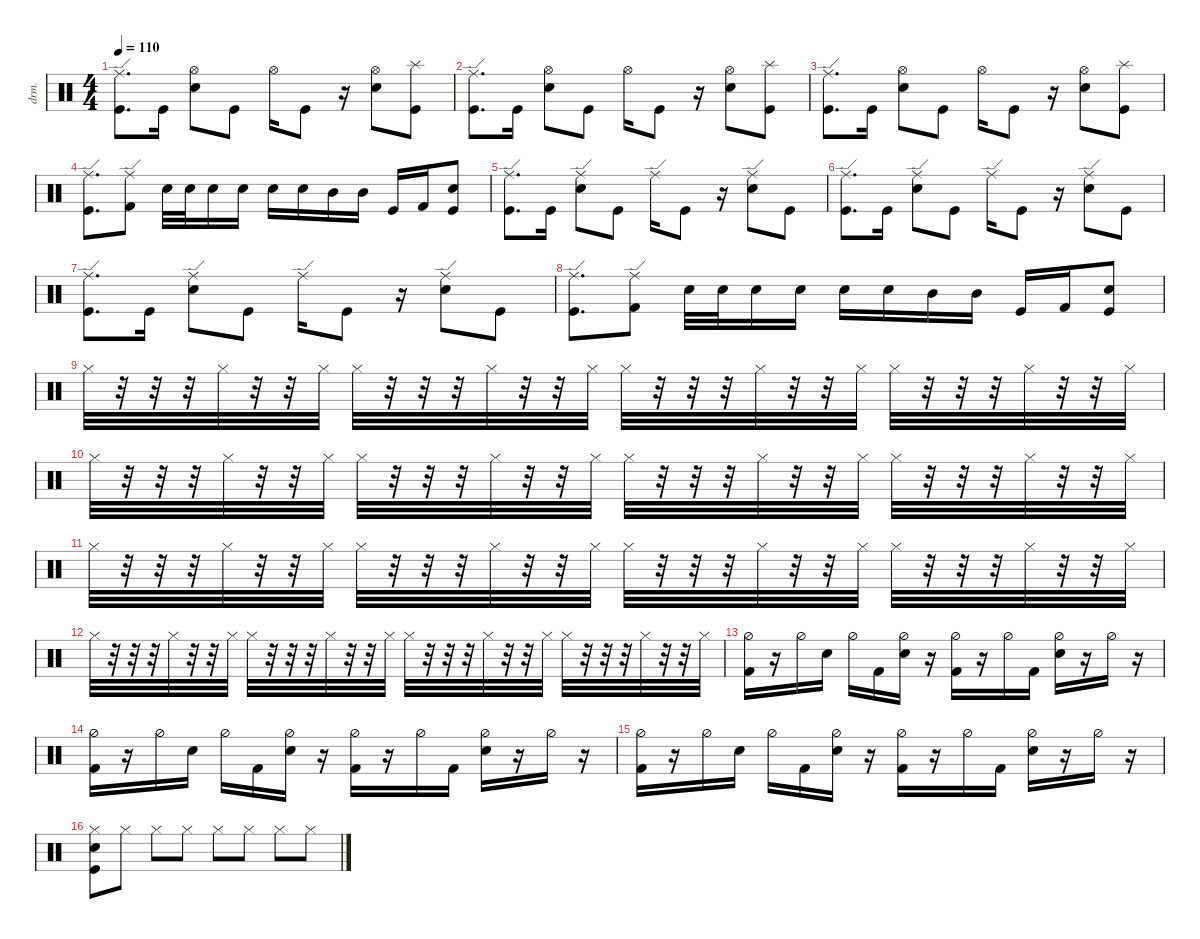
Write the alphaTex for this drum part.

\defaultSystemsLayout 4
\hideDynamics
\bracketExtendMode nobrackets
\otherSystemsTrackNameOrientation horizontal
\track ("Drumkit" "drm.") {instrument percussion}
\staff {score}
\articulation defaults
\ts (4 4)
\tempo 110
\clef neutral
\ks c
("Ride (edge)" "Kick (hit)").8{d dy mf beam Down} "Kick (hit)".16{beam Down} ("Hi-Hat (open)" "Snare (hit) 2").8{beam Down} "Kick (hit)".8{beam Down} "Hi-Hat (open)".16{beam Down} "Kick (hit)".8{beam Down} r.16{beam Down} ("Hi-Hat (open)" "Snare (hit) 2").8{beam Down} ("Kick (hit)" "Splash (hit)").8{beam Down} |
("Ride (edge)" "Kick (hit)").8{d beam Down} "Kick (hit)".16{beam Down} ("Hi-Hat (open)" "Snare (hit) 2").8{beam Down} "Kick (hit)".8{beam Down} "Hi-Hat (open)".16{beam Down} "Kick (hit)".8{beam Down} r.16{beam Down} ("Hi-Hat (open)" "Snare (hit) 2").8{beam Down} ("Kick (hit)" "Splash (hit)").8{beam Down} |
("Ride (edge)" "Kick (hit)").8{d beam Down} "Kick (hit)".16{beam Down} ("Hi-Hat (open)" "Snare (hit) 2").8{beam Down} "Kick (hit)".8{beam Down} "Hi-Hat (open)".16{beam Down} "Kick (hit)".8{beam Down} r.16{beam Down} ("Hi-Hat (open)" "Snare (hit) 2").8{beam Down} ("Kick (hit)" "Splash (hit)").8{beam Down} |
("Kick (hit)" "Ride (edge)").8{d beam Down} ("Ride (edge)" "Kick (hit) 2").8{beam Down} "Snare (hit) 2".32{beam Down} "Snare (hit) 2".32{beam Down} "Snare (hit) 2".16{beam Down} "Snare (hit) 2".16{beam Down} "Snare (hit) 2".16{beam Down} "Snare (hit) 2".16{beam Down} "Mid Tom (hit)".16{beam Down} "Mid Tom (hit)".16{beam Down} "Kick (hit)".16{beam Up} "Kick (hit) 2".16{beam Up} ("Snare (hit) 2" "Kick (hit)").8{beam Up} |
("Ride (edge)" "Kick (hit)").8{d beam Down} "Kick (hit)".16{beam Down} ("Snare (hit) 2" "Ride (edge)").8{beam Down} "Kick (hit)".8{beam Down} "Ride (edge)".16{beam Down} "Kick (hit)".8{beam Down} r.16{beam Down} ("Snare (hit) 2" "Ride (edge)").8{beam Down} "Kick (hit)".8{beam Down} |
("Ride (edge)" "Kick (hit)").8{d beam Down} "Kick (hit)".16{beam Down} ("Snare (hit) 2" "Ride (edge)").8{beam Down} "Kick (hit)".8{beam Down} "Ride (edge)".16{beam Down} "Kick (hit)".8{beam Down} r.16{beam Down} ("Snare (hit) 2" "Ride (edge)").8{beam Down} "Kick (hit)".8{beam Down} |
("Ride (edge)" "Kick (hit)").8{d beam Down} "Kick (hit)".16{beam Down} ("Snare (hit) 2" "Ride (edge)").8{beam Down} "Kick (hit)".8{beam Down} "Ride (edge)".16{beam Down} "Kick (hit)".8{beam Down} r.16{beam Down} ("Snare (hit) 2" "Ride (edge)").8{beam Down} "Kick (hit)".8{beam Down} |
("Kick (hit)" "Ride (edge)").8{d beam Down} ("Ride (edge)" "Kick (hit) 2").8{beam Down} "Snare (hit) 2".32{beam Down} "Snare (hit) 2".32{beam Down} "Snare (hit) 2".16{beam Down} "Snare (hit) 2".16{beam Down} "Snare (hit) 2".16{beam Down} "Snare (hit) 2".16{beam Down} "Mid Tom (hit)".16{beam Down} "Mid Tom (hit)".16{beam Down} "Kick (hit)".16{beam Up} "Kick (hit) 2".16{beam Up} ("Snare (hit) 2" "Kick (hit)").8{beam Up} |
"Hi-Hat (closed)".32{beam Down} r.32{beam Down} r.32{beam Down} r.32{beam Down} "Hi-Hat (closed)".32{beam Down} r.32{beam Down} r.32{beam Down} "Hi-Hat (closed)".32{beam Down} "Hi-Hat (closed)".32{beam Down} r.32{beam Down} r.32{beam Down} r.32{beam Down} "Hi-Hat (closed)".32{beam Down} r.32{beam Down} r.32{beam Down} "Hi-Hat (closed)".32{beam Down} "Hi-Hat (closed)".32{beam Down} r.32{beam Down} r.32{beam Down} r.32{beam Down} "Hi-Hat (closed)".32{beam Down} r.32{beam Down} r.32{beam Down} "Hi-Hat (closed)".32{beam Down} "Hi-Hat (closed)".32{beam Down} r.32{beam Down} r.32{beam Down} r.32{beam Down} "Hi-Hat (closed)".32{beam Down} r.32{beam Down} r.32{beam Down} "Hi-Hat (closed)".32{beam Down} |
"Hi-Hat (closed)".32{beam Down} r.32{beam Down} r.32{beam Down} r.32{beam Down} "Hi-Hat (closed)".32{beam Down} r.32{beam Down} r.32{beam Down} "Hi-Hat (closed)".32{beam Down} "Hi-Hat (closed)".32{beam Down} r.32{beam Down} r.32{beam Down} r.32{beam Down} "Hi-Hat (closed)".32{beam Down} r.32{beam Down} r.32{beam Down} "Hi-Hat (closed)".32{beam Down} "Hi-Hat (closed)".32{beam Down} r.32{beam Down} r.32{beam Down} r.32{beam Down} "Hi-Hat (closed)".32{beam Down} r.32{beam Down} r.32{beam Down} "Hi-Hat (closed)".32{beam Down} "Hi-Hat (closed)".32{beam Down} r.32{beam Down} r.32{beam Down} r.32{beam Down} "Hi-Hat (closed)".32{beam Down} r.32{beam Down} r.32{beam Down} "Hi-Hat (closed)".32{beam Down} |
"Hi-Hat (closed)".32{beam Down} r.32{beam Down} r.32{beam Down} r.32{beam Down} "Hi-Hat (closed)".32{beam Down} r.32{beam Down} r.32{beam Down} "Hi-Hat (closed)".32{beam Down} "Hi-Hat (closed)".32{beam Down} r.32{beam Down} r.32{beam Down} r.32{beam Down} "Hi-Hat (closed)".32{beam Down} r.32{beam Down} r.32{beam Down} "Hi-Hat (closed)".32{beam Down} "Hi-Hat (closed)".32{beam Down} r.32{beam Down} r.32{beam Down} r.32{beam Down} "Hi-Hat (closed)".32{beam Down} r.32{beam Down} r.32{beam Down} "Hi-Hat (closed)".32{beam Down} "Hi-Hat (closed)".32{beam Down} r.32{beam Down} r.32{beam Down} r.32{beam Down} "Hi-Hat (closed)".32{beam Down} r.32{beam Down} r.32{beam Down} "Hi-Hat (closed)".32{beam Down} |
"Hi-Hat (closed)".32{beam Down} r.32{beam Down} r.32{beam Down} r.32{beam Down} "Hi-Hat (closed)".32{beam Down} r.32{beam Down} r.32{beam Down} "Hi-Hat (closed)".32{beam Down} "Hi-Hat (closed)".32{beam Down} r.32{beam Down} r.32{beam Down} r.32{beam Down} "Hi-Hat (closed)".32{beam Down} r.32{beam Down} r.32{beam Down} "Hi-Hat (closed)".32{beam Down} "Hi-Hat (closed)".32{beam Down} r.32{beam Down} r.32{beam Down} r.32{beam Down} "Hi-Hat (closed)".32{beam Down} r.32{beam Down} r.32{beam Down} "Hi-Hat (closed)".32{beam Down} "Hi-Hat (closed)".32{beam Down} r.32{beam Down} r.32{beam Down} r.32{beam Down} "Hi-Hat (closed)".32{beam Down} r.32{beam Down} r.32{beam Down} "Hi-Hat (closed)".32{beam Down} |
("Kick (hit) 2" "Hi-Hat (half)").16{beam Down} r.16{beam Down} "Hi-Hat (half)".16{beam Down} "Snare (hit) 2".16{beam Down} "Hi-Hat (half)".16{beam Down} "Kick (hit) 2".16{beam Down} ("Snare (hit) 2" "Hi-Hat (half)").16{beam Down} r.16{beam Down} ("Kick (hit) 2" "Hi-Hat (half)").16{beam Down} r.16{beam Down} "Hi-Hat (half)".16{beam Down} "Kick (hit) 2".16{beam Down} ("Snare (hit) 2" "Hi-Hat (half)").16{beam Down} r.16{beam Down} "Hi-Hat (half)".16{beam Down} r.16{beam Down} |
("Kick (hit) 2" "Hi-Hat (half)").16{beam Down} r.16{beam Down} "Hi-Hat (half)".16{beam Down} "Snare (hit) 2".16{beam Down} "Hi-Hat (half)".16{beam Down} "Kick (hit) 2".16{beam Down} ("Snare (hit) 2" "Hi-Hat (half)").16{beam Down} r.16{beam Down} ("Kick (hit) 2" "Hi-Hat (half)").16{beam Down} r.16{beam Down} "Hi-Hat (half)".16{beam Down} "Kick (hit) 2".16{beam Down} ("Snare (hit) 2" "Hi-Hat (half)").16{beam Down} r.16{beam Down} "Hi-Hat (half)".16{beam Down} r.16{beam Down} |
("Kick (hit) 2" "Hi-Hat (half)").16{beam Down} r.16{beam Down} "Hi-Hat (half)".16{beam Down} "Snare (hit) 2".16{beam Down} "Hi-Hat (half)".16{beam Down} "Kick (hit) 2".16{beam Down} ("Snare (hit) 2" "Hi-Hat (half)").16{beam Down} r.16{beam Down} ("Kick (hit) 2" "Hi-Hat (half)").16{beam Down} r.16{beam Down} "Hi-Hat (half)".16{beam Down} "Kick (hit) 2".16{beam Down} ("Snare (hit) 2" "Hi-Hat (half)").16{beam Down} r.16{beam Down} "Hi-Hat (half)".16{beam Down} r.16{beam Down} |
("Hi-Hat (closed)" "Snare (hit) 2" "Kick (hit)").8{beam Down} "Hi-Hat (closed)".8{beam Down} "Hi-Hat (closed)".8{beam Down} "Hi-Hat (closed)".8{beam Down} "Hi-Hat (closed)".8{beam Down} "Hi-Hat (closed)".8{beam Down} "Hi-Hat (closed)".8{beam Down} "Hi-Hat (closed)".8{beam Down}
